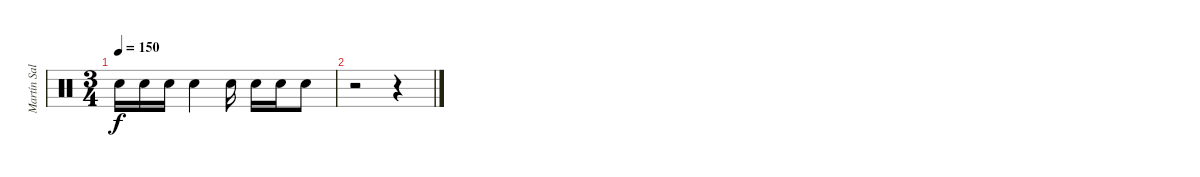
\track ("Martín Salariato" "Martín Sal") {instrument percussion}
\staff {score}
\articulation defaults
\ts (3 4)
\tempo 150
\clef neutral
\ks c "Snare (hit) 2".16{dy f} "Snare (hit) 2".16 "Snare (hit) 2".16 "Snare (hit) 2".4 "Snare (hit) 2".16 "Snare (hit) 2".16 "Snare (hit) 2".16 "Snare (hit) 2".8
|
r.2 r.4
